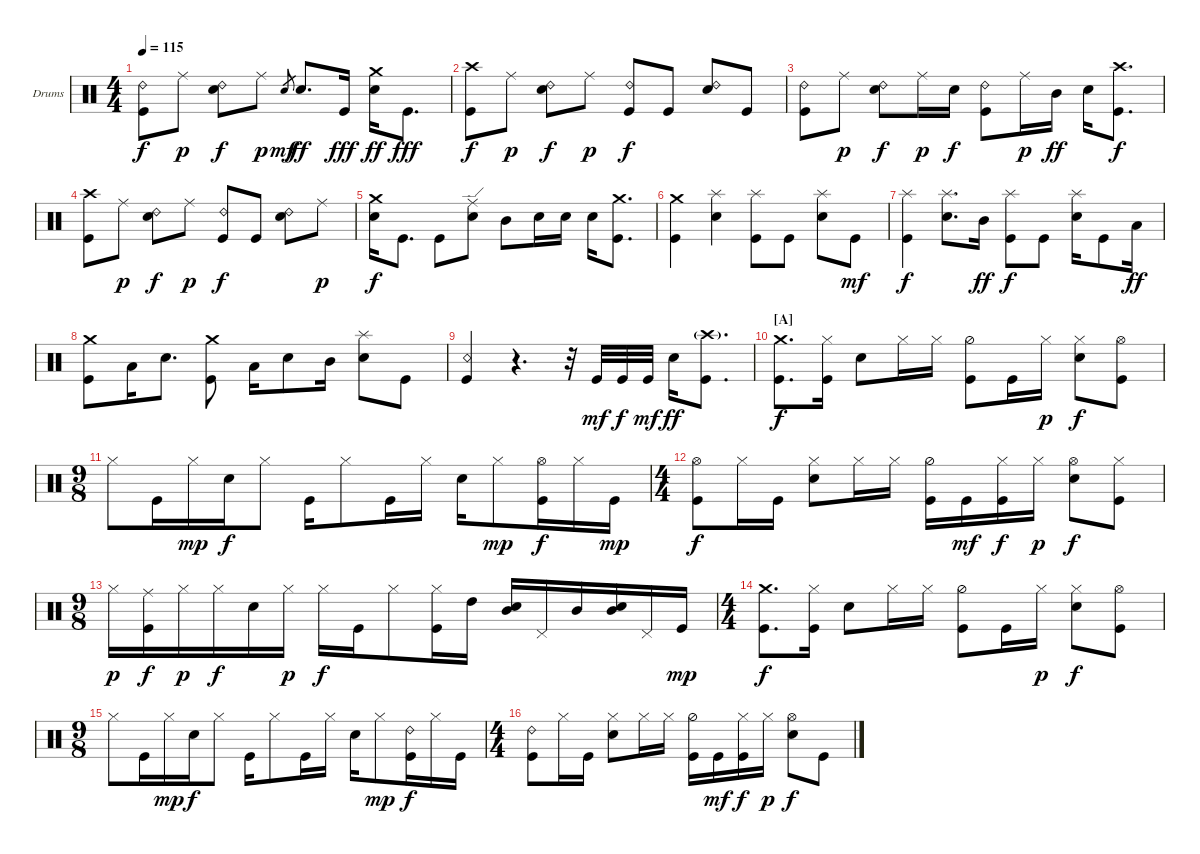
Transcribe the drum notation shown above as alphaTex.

\defaultSystemsLayout 4
\bracketExtendMode groupsimilarinstruments
\firstSystemTrackNameOrientation horizontal
\otherSystemsTrackNameOrientation horizontal
\track ("Batterie " "Drums") {instrument percussion}
\staff {score}
\articulation defaults
\ts (4 4)
\tempo 115
\clef neutral
\ks c
("Kick (hit)" "Ride (bell) 2").8{dy f} "Ride (middle)".8{dy p} ("Snare (hit) 2" "Ride (bell) 2").8{dy f} "Ride (middle)".8{dy p} "Snare (hit) 2".8{gr dy mf} "Snare (hit) 2".8{d dy ff} "Kick (hit)".16{dy fff} ("Snare (hit) 2" "Crash medium (hit)").16{dy ff} "Kick (hit)".8{d dy fff} |
("Kick (hit)" "Crash high (hit)").8{dy f} "Ride (middle)".8{dy p} ("Snare (hit) 2" "Ride (bell) 2").8{dy f} "Ride (middle)".8{dy p} ("Kick (hit)" "Ride (bell) 2").8{dy f} "Kick (hit)".8 ("Snare (hit) 2" "Ride (bell) 2").8 "Kick (hit)".8 |
("Kick (hit)" "Ride (bell) 2").8 "Ride (middle)".8{dy p} ("Snare (hit) 2" "Ride (bell) 2").8{dy f} "Ride (middle)".16{dy p} "Snare (hit) 2".16{dy f} ("Kick (hit)" "Ride (bell) 2").8 "Ride (middle)".16{dy p} "Mid Tom (hit)".16{dy ff} "Snare (hit) 2".16 ("Kick (hit)" "Crash high (hit)").8{d dy f} |
("Kick (hit)" "Crash high (hit)").8 "Ride (middle)".8{dy p} ("Snare (hit) 2" "Ride (bell) 2").8{dy f} "Ride (middle)".8{dy p} ("Kick (hit)" "Ride (bell) 2").8{dy f} "Kick (hit)".8 ("Snare (hit) 2" "Ride (bell) 2").8 "Ride (middle)".8{dy p} |
("Snare (hit) 2" "Crash medium (hit)").16{dy f} "Kick (hit)".8{d} "Kick (hit)".8 ("Snare (hit) 2" "Ride (edge)").8 "Mid Tom (hit)".8 "Snare (hit) 2".16 "Snare (hit) 2".16 "Snare (hit) 2".16 ("Kick (hit)" "Crash medium (hit)").8{d} |
("Kick (hit)" "Crash medium (hit)").4 ("Snare (hit) 2" "Splash (hit)").4 ("Kick (hit)" "Splash (hit)").8 "Kick (hit)".8 ("Snare (hit) 2" "Splash (hit)").8 "Kick (hit)".8{dy mf} |
("Kick (hit)" "Splash (hit)").4{dy f} ("Snare (hit) 2" "Splash (hit)").8{d} "Mid Tom (hit)".16{dy ff} ("Kick (hit)" "Splash (hit)").8{dy f} "Kick (hit)".8 ("Snare (hit) 2" "Splash (hit)").16 "Kick (hit)".8 "Low Tom (hit)".16{dy ff} |
("Kick (hit)" "Crash medium (hit)").8 "Low Tom (hit)".16 "Snare (hit) 2".8{d} ("Kick (hit)" "Crash medium (hit)").8 "Low Tom (hit)".16 "Snare (hit) 2".8 "Mid Tom (hit)".16 ("Snare (hit) 2" "Splash (hit)").8 "Kick (hit)".8 |
("Snare (rim shot)" "Kick (hit)").4 r.4{d} r.32 "Kick (hit)".32{dy mf} "Kick (hit)".32{dy f} "Kick (hit)".32{dy mf} "Snare (hit) 2".16{dy ff} ("Kick (hit)" "Crash high (hit)"{g}).8{d} |
\section ("A" "")
("Kick (hit)" "Crash medium (hit)").8{d dy f} ("Kick (hit)" "Hi-Hat (closed)").16 "Snare (hit) 2".8 "Hi-Hat (closed)".16 "Hi-Hat (closed)".16 ("Hi-Hat (half)" "Kick (hit)").8 "Kick (hit)".16 "Hi-Hat (closed)".16{dy p} ("Snare (hit) 2" "Hi-Hat (closed)").8{dy f} ("Kick (hit)" "Hi-Hat (open)").8 |
\ts (9 8)
"Hi-Hat (closed)".8 "Kick (hit)".16 "Hi-Hat (closed)".16{dy mp} "Snare (hit) 2".16{dy f} "Hi-Hat (closed)".8 "Kick (hit)".16 "Hi-Hat (closed)".8 "Kick (hit)".16 "Hi-Hat (closed)".16 "Snare (hit) 2".16 "Hi-Hat (closed)".8{dy mp} ("Kick (hit)" "Hi-Hat (open)").16{dy f} "Hi-Hat (closed)".16 "Kick (hit)".16{dy mp} |
\ts (4 4)
("Kick (hit)" "Hi-Hat (open)").8{dy f} "Hi-Hat (closed)".16 "Kick (hit)".16 ("Snare (hit) 2" "Hi-Hat (closed)").8 "Hi-Hat (closed)".16 "Hi-Hat (closed)".16 ("Hi-Hat (half)" "Kick (hit)").16 "Kick (hit)".16{dy mf} ("Kick (hit)" "Hi-Hat (closed)").16{dy f} "Hi-Hat (closed)".16{dy p} ("Snare (hit) 2" "Hi-Hat (open)").8{dy f} ("Kick (hit)" "Hi-Hat (closed)").8 |
\ts (9 8)
"Hi-Hat (closed)".16{dy p} ("Kick (hit)" "Ride (middle)").16{dy f} "Hi-Hat (closed)".16{dy p} "Hi-Hat (closed)".16{dy f} "Snare (hit) 2".16 "Hi-Hat (closed)".16{dy p} "Hi-Hat (closed)".16{dy f} "Kick (hit)".16 "Hi-Hat (closed)".8 ("Hi-Hat (closed)" "Kick (hit)").16 "High Tom (hit)".16 ("Mid Tom (hit)" "Snare (hit) 2").16 "Pedal Hi-Hat (hit)".16 "Mid Tom (hit)".16 ("Snare (hit) 2" "Mid Tom (hit)").16 "Pedal Hi-Hat (hit)".16 "Kick (hit)".16{dy mp} |
\ts (4 4)
("Kick (hit)" "Crash medium (hit)").8{d dy f} ("Kick (hit)" "Hi-Hat (closed)").16 "Snare (hit) 2".8 "Hi-Hat (closed)".16 "Hi-Hat (closed)".16 ("Hi-Hat (half)" "Kick (hit)").8 "Kick (hit)".16 "Hi-Hat (closed)".16{dy p} ("Snare (hit) 2" "Hi-Hat (closed)").8{dy f} ("Kick (hit)" "Hi-Hat (open)").8 |
\ts (9 8)
"Hi-Hat (closed)".8 "Kick (hit)".16 "Hi-Hat (closed)".16{dy mp} "Snare (hit) 2".16{dy f} "Hi-Hat (closed)".8 "Kick (hit)".16 "Hi-Hat (closed)".8 "Kick (hit)".16 "Hi-Hat (closed)".16 "Snare (hit) 2".16 "Hi-Hat (closed)".8{dy mp} ("Kick (hit)" "Ride (bell) 2").16{dy f} "Hi-Hat (closed)".16 "Kick (hit)".16 |
\ts (4 4)
("Kick (hit)" "Ride (bell) 2").8 "Hi-Hat (closed)".16 "Kick (hit)".16 ("Snare (hit) 2" "Hi-Hat (closed)").8 "Hi-Hat (closed)".16 "Hi-Hat (closed)".16 ("Hi-Hat (half)" "Kick (hit)").16 "Kick (hit)".16{dy mf} ("Kick (hit)" "Hi-Hat (closed)").16{dy f} "Hi-Hat (closed)".16{dy p} ("Snare (hit) 2" "Hi-Hat (open)").8{dy f} "Kick (hit)".8
